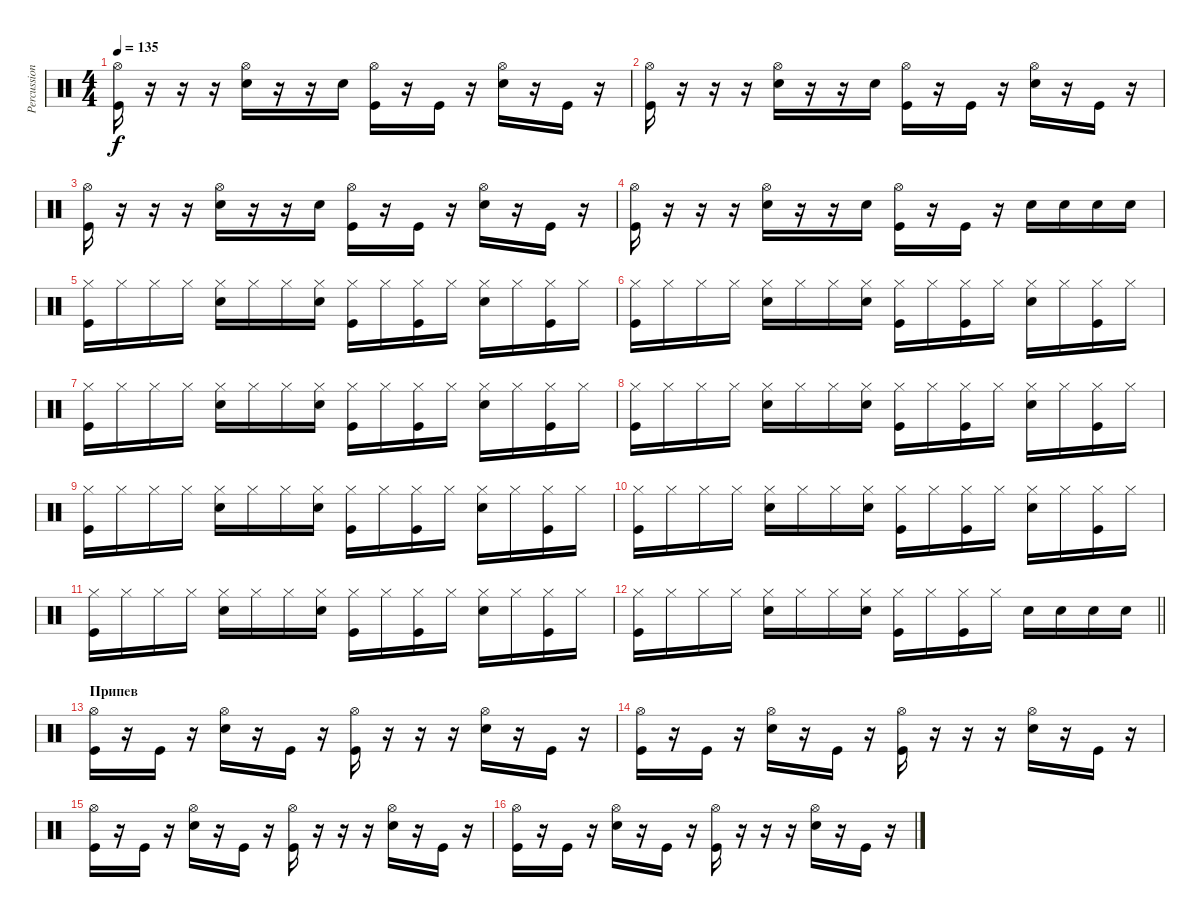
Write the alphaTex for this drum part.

\track ("Percussion" "Percussion") {instrument percussion}
\staff {score}
\articulation defaults
\ts (4 4)
\tempo 135
\clef neutral
\ks c
("Hi-Hat (open)" "Kick (hit)").16{dy f} r.16 r.16 r.16 ("Hi-Hat (open)" "Snare (hit) 2").16 r.16 r.16 "Snare (hit) 2".16 ("Hi-Hat (open)" "Kick (hit)").16 r.16 "Kick (hit)".16 r.16 ("Hi-Hat (open)" "Snare (hit) 2").16 r.16 "Kick (hit)".16 r.16 |
("Hi-Hat (open)" "Kick (hit)").16 r.16 r.16 r.16 ("Hi-Hat (open)" "Snare (hit) 2").16 r.16 r.16 "Snare (hit) 2".16 ("Hi-Hat (open)" "Kick (hit)").16 r.16 "Kick (hit)".16 r.16 ("Hi-Hat (open)" "Snare (hit) 2").16 r.16 "Kick (hit)".16 r.16 |
("Hi-Hat (open)" "Kick (hit)").16 r.16 r.16 r.16 ("Hi-Hat (open)" "Snare (hit) 2").16 r.16 r.16 "Snare (hit) 2".16 ("Hi-Hat (open)" "Kick (hit)").16 r.16 "Kick (hit)".16 r.16 ("Hi-Hat (open)" "Snare (hit) 2").16 r.16 "Kick (hit)".16 r.16 |
("Hi-Hat (open)" "Kick (hit)").16 r.16 r.16 r.16 ("Hi-Hat (open)" "Snare (hit) 2").16 r.16 r.16 "Snare (hit) 2".16 ("Hi-Hat (open)" "Kick (hit)").16 r.16 "Kick (hit)".16 r.16 "Snare (hit) 2".16 "Snare (hit) 2".16 "Snare (hit) 2".16 "Snare (hit) 2".16 |
("Hi-Hat (closed)" "Kick (hit)").16 "Hi-Hat (closed)".16 "Hi-Hat (closed)".16 "Hi-Hat (closed)".16 ("Hi-Hat (closed)" "Snare (hit) 2").16 "Hi-Hat (closed)".16 "Hi-Hat (closed)".16 ("Hi-Hat (closed)" "Snare (hit) 2").16 ("Hi-Hat (closed)" "Kick (hit)").16 "Hi-Hat (closed)".16 ("Hi-Hat (closed)" "Kick (hit)").16 "Hi-Hat (closed)".16 ("Hi-Hat (closed)" "Snare (hit) 2").16 "Hi-Hat (closed)".16 ("Hi-Hat (closed)" "Kick (hit)").16 "Hi-Hat (closed)".16 |
("Hi-Hat (closed)" "Kick (hit)").16 "Hi-Hat (closed)".16 "Hi-Hat (closed)".16 "Hi-Hat (closed)".16 ("Hi-Hat (closed)" "Snare (hit) 2").16 "Hi-Hat (closed)".16 "Hi-Hat (closed)".16 ("Hi-Hat (closed)" "Snare (hit) 2").16 ("Hi-Hat (closed)" "Kick (hit)").16 "Hi-Hat (closed)".16 ("Hi-Hat (closed)" "Kick (hit)").16 "Hi-Hat (closed)".16 ("Hi-Hat (closed)" "Snare (hit) 2").16 "Hi-Hat (closed)".16 ("Hi-Hat (closed)" "Kick (hit)").16 "Hi-Hat (closed)".16 |
("Hi-Hat (closed)" "Kick (hit)").16 "Hi-Hat (closed)".16 "Hi-Hat (closed)".16 "Hi-Hat (closed)".16 ("Hi-Hat (closed)" "Snare (hit) 2").16 "Hi-Hat (closed)".16 "Hi-Hat (closed)".16 ("Hi-Hat (closed)" "Snare (hit) 2").16 ("Hi-Hat (closed)" "Kick (hit)").16 "Hi-Hat (closed)".16 ("Hi-Hat (closed)" "Kick (hit)").16 "Hi-Hat (closed)".16 ("Hi-Hat (closed)" "Snare (hit) 2").16 "Hi-Hat (closed)".16 ("Hi-Hat (closed)" "Kick (hit)").16 "Hi-Hat (closed)".16 |
("Hi-Hat (closed)" "Kick (hit)").16 "Hi-Hat (closed)".16 "Hi-Hat (closed)".16 "Hi-Hat (closed)".16 ("Hi-Hat (closed)" "Snare (hit) 2").16 "Hi-Hat (closed)".16 "Hi-Hat (closed)".16 ("Hi-Hat (closed)" "Snare (hit) 2").16 ("Hi-Hat (closed)" "Kick (hit)").16 "Hi-Hat (closed)".16 ("Hi-Hat (closed)" "Kick (hit)").16 "Hi-Hat (closed)".16 ("Hi-Hat (closed)" "Snare (hit) 2").16 "Hi-Hat (closed)".16 ("Hi-Hat (closed)" "Kick (hit)").16 "Hi-Hat (closed)".16 |
("Hi-Hat (closed)" "Kick (hit)").16 "Hi-Hat (closed)".16 "Hi-Hat (closed)".16 "Hi-Hat (closed)".16 ("Hi-Hat (closed)" "Snare (hit) 2").16 "Hi-Hat (closed)".16 "Hi-Hat (closed)".16 ("Hi-Hat (closed)" "Snare (hit) 2").16 ("Hi-Hat (closed)" "Kick (hit)").16 "Hi-Hat (closed)".16 ("Hi-Hat (closed)" "Kick (hit)").16 "Hi-Hat (closed)".16 ("Hi-Hat (closed)" "Snare (hit) 2").16 "Hi-Hat (closed)".16 ("Hi-Hat (closed)" "Kick (hit)").16 "Hi-Hat (closed)".16 |
("Hi-Hat (closed)" "Kick (hit)").16 "Hi-Hat (closed)".16 "Hi-Hat (closed)".16 "Hi-Hat (closed)".16 ("Hi-Hat (closed)" "Snare (hit) 2").16 "Hi-Hat (closed)".16 "Hi-Hat (closed)".16 ("Hi-Hat (closed)" "Snare (hit) 2").16 ("Hi-Hat (closed)" "Kick (hit)").16 "Hi-Hat (closed)".16 ("Hi-Hat (closed)" "Kick (hit)").16 "Hi-Hat (closed)".16 ("Hi-Hat (closed)" "Snare (hit) 2").16 "Hi-Hat (closed)".16 ("Hi-Hat (closed)" "Kick (hit)").16 "Hi-Hat (closed)".16 |
("Hi-Hat (closed)" "Kick (hit)").16 "Hi-Hat (closed)".16 "Hi-Hat (closed)".16 "Hi-Hat (closed)".16 ("Hi-Hat (closed)" "Snare (hit) 2").16 "Hi-Hat (closed)".16 "Hi-Hat (closed)".16 ("Hi-Hat (closed)" "Snare (hit) 2").16 ("Hi-Hat (closed)" "Kick (hit)").16 "Hi-Hat (closed)".16 ("Hi-Hat (closed)" "Kick (hit)").16 "Hi-Hat (closed)".16 ("Hi-Hat (closed)" "Snare (hit) 2").16 "Hi-Hat (closed)".16 ("Hi-Hat (closed)" "Kick (hit)").16 "Hi-Hat (closed)".16 |
\barLineRight lightlight
("Hi-Hat (closed)" "Kick (hit)").16 "Hi-Hat (closed)".16 "Hi-Hat (closed)".16 "Hi-Hat (closed)".16 ("Hi-Hat (closed)" "Snare (hit) 2").16 "Hi-Hat (closed)".16 "Hi-Hat (closed)".16 ("Hi-Hat (closed)" "Snare (hit) 2").16 ("Hi-Hat (closed)" "Kick (hit)").16 "Hi-Hat (closed)".16 ("Hi-Hat (closed)" "Kick (hit)").16 "Hi-Hat (closed)".16 "Snare (hit) 2".16 "Snare (hit) 2".16 "Snare (hit) 2".16 "Snare (hit) 2".16 |
\section ("" "Припев")
("Hi-Hat (open)" "Kick (hit)").16 r.16 "Kick (hit)".16 r.16 ("Hi-Hat (open)" "Snare (hit) 2").16 r.16 "Kick (hit)".16 r.16 ("Hi-Hat (open)" "Kick (hit)").16 r.16 r.16 r.16 ("Hi-Hat (open)" "Snare (hit) 2").16 r.16 "Kick (hit)".16 r.16 |
("Hi-Hat (open)" "Kick (hit)").16 r.16 "Kick (hit)".16 r.16 ("Hi-Hat (open)" "Snare (hit) 2").16 r.16 "Kick (hit)".16 r.16 ("Hi-Hat (open)" "Kick (hit)").16 r.16 r.16 r.16 ("Hi-Hat (open)" "Snare (hit) 2").16 r.16 "Kick (hit)".16 r.16 |
("Hi-Hat (open)" "Kick (hit)").16 r.16 "Kick (hit)".16 r.16 ("Hi-Hat (open)" "Snare (hit) 2").16 r.16 "Kick (hit)".16 r.16 ("Hi-Hat (open)" "Kick (hit)").16 r.16 r.16 r.16 ("Hi-Hat (open)" "Snare (hit) 2").16 r.16 "Kick (hit)".16 r.16 |
("Hi-Hat (open)" "Kick (hit)").16 r.16 "Kick (hit)".16 r.16 ("Hi-Hat (open)" "Snare (hit) 2").16 r.16 "Kick (hit)".16 r.16 ("Hi-Hat (open)" "Kick (hit)").16 r.16 r.16 r.16 ("Hi-Hat (open)" "Snare (hit) 2").16 r.16 "Kick (hit)".16 r.16
